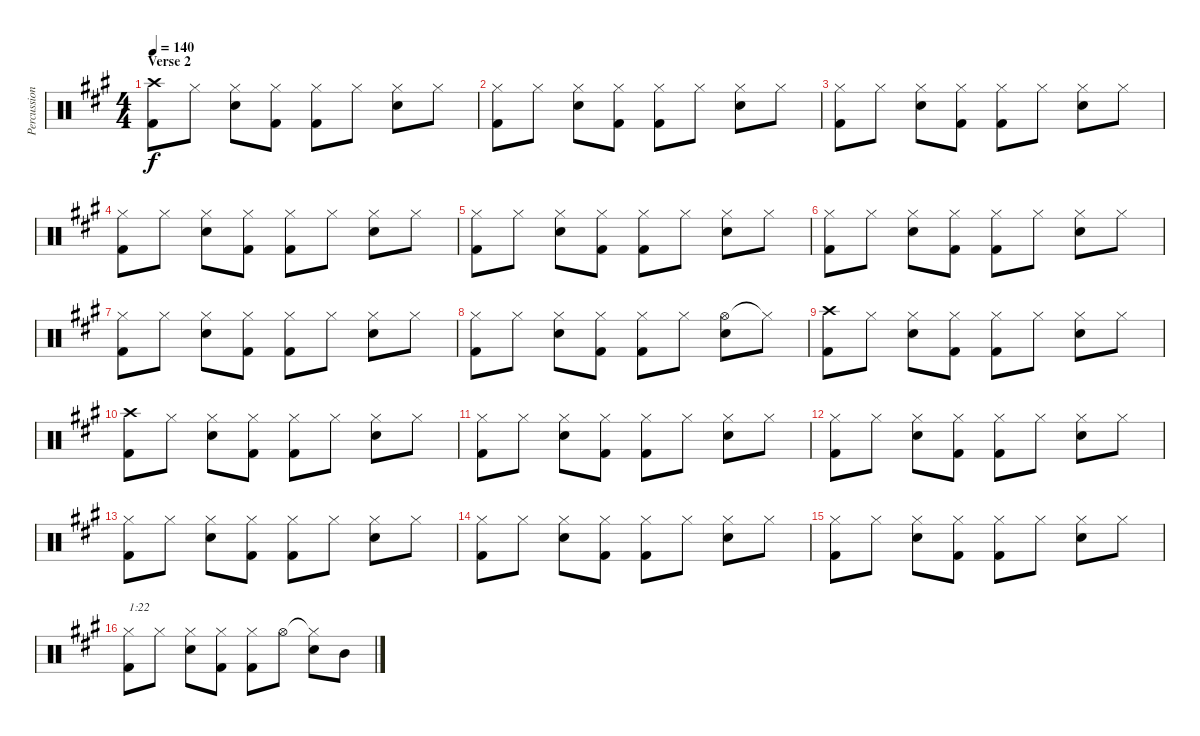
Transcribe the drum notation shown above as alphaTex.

\track ("Percussion" "Percussion") {instrument percussion}
\staff {score}
\articulation defaults
\ts (4 4)
\section ("" "Verse 2")
\tempo 140
\clef neutral
\ks a
("Crash high (hit)" "Kick (hit) 2").8{dy f} "Hi-Hat (closed)".8 ("Hi-Hat (closed)" "Electric Snare (hit)").8 ("Hi-Hat (closed)" "Kick (hit) 2").8 ("Hi-Hat (closed)" "Kick (hit) 2").8 "Hi-Hat (closed)".8 ("Hi-Hat (closed)" "Electric Snare (hit)").8 "Hi-Hat (closed)".8 |
("Hi-Hat (closed)" "Kick (hit) 2").8 "Hi-Hat (closed)".8 ("Hi-Hat (closed)" "Electric Snare (hit)").8 ("Hi-Hat (closed)" "Kick (hit) 2").8 ("Hi-Hat (closed)" "Kick (hit) 2").8 "Hi-Hat (closed)".8 ("Hi-Hat (closed)" "Electric Snare (hit)").8 "Hi-Hat (closed)".8 |
("Hi-Hat (closed)" "Kick (hit) 2").8 "Hi-Hat (closed)".8 ("Hi-Hat (closed)" "Electric Snare (hit)").8 ("Hi-Hat (closed)" "Kick (hit) 2").8 ("Hi-Hat (closed)" "Kick (hit) 2").8 "Hi-Hat (closed)".8 ("Hi-Hat (closed)" "Electric Snare (hit)").8 "Hi-Hat (closed)".8 |
("Hi-Hat (closed)" "Kick (hit) 2").8 "Hi-Hat (closed)".8 ("Hi-Hat (closed)" "Electric Snare (hit)").8 ("Hi-Hat (closed)" "Kick (hit) 2").8 ("Hi-Hat (closed)" "Kick (hit) 2").8 "Hi-Hat (closed)".8 ("Hi-Hat (closed)" "Electric Snare (hit)").8 "Hi-Hat (closed)".8 |
("Hi-Hat (closed)" "Kick (hit) 2").8 "Hi-Hat (closed)".8 ("Hi-Hat (closed)" "Electric Snare (hit)").8 ("Hi-Hat (closed)" "Kick (hit) 2").8 ("Hi-Hat (closed)" "Kick (hit) 2").8 "Hi-Hat (closed)".8 ("Hi-Hat (closed)" "Electric Snare (hit)").8 "Hi-Hat (closed)".8 |
("Hi-Hat (closed)" "Kick (hit) 2").8 "Hi-Hat (closed)".8 ("Hi-Hat (closed)" "Electric Snare (hit)").8 ("Hi-Hat (closed)" "Kick (hit) 2").8 ("Hi-Hat (closed)" "Kick (hit) 2").8 "Hi-Hat (closed)".8 ("Hi-Hat (closed)" "Electric Snare (hit)").8 "Hi-Hat (closed)".8 |
("Hi-Hat (closed)" "Kick (hit) 2").8 "Hi-Hat (closed)".8 ("Hi-Hat (closed)" "Electric Snare (hit)").8 ("Hi-Hat (closed)" "Kick (hit) 2").8 ("Hi-Hat (closed)" "Kick (hit) 2").8 "Hi-Hat (closed)".8 ("Hi-Hat (closed)" "Electric Snare (hit)").8 "Hi-Hat (closed)".8 |
("Hi-Hat (closed)" "Kick (hit) 2").8 "Hi-Hat (closed)".8 ("Hi-Hat (closed)" "Electric Snare (hit)").8 ("Hi-Hat (closed)" "Kick (hit) 2").8 ("Hi-Hat (closed)" "Kick (hit) 2").8 "Hi-Hat (closed)".8 ("Hi-Hat (open)" "Electric Snare (hit)").8 "Hi-Hat (closed)"{t}.8 |
("Crash high (hit)" "Kick (hit) 2").8 "Hi-Hat (closed)".8 ("Hi-Hat (closed)" "Electric Snare (hit)").8 ("Hi-Hat (closed)" "Kick (hit) 2").8 ("Hi-Hat (closed)" "Kick (hit) 2").8 "Hi-Hat (closed)".8 ("Hi-Hat (closed)" "Electric Snare (hit)").8 "Hi-Hat (closed)".8 |
("Crash high (hit)" "Kick (hit) 2").8 "Hi-Hat (closed)".8 ("Hi-Hat (closed)" "Electric Snare (hit)").8 ("Hi-Hat (closed)" "Kick (hit) 2").8 ("Hi-Hat (closed)" "Kick (hit) 2").8 "Hi-Hat (closed)".8 ("Hi-Hat (closed)" "Electric Snare (hit)").8 "Hi-Hat (closed)".8 |
("Hi-Hat (closed)" "Kick (hit) 2").8 "Hi-Hat (closed)".8 ("Hi-Hat (closed)" "Electric Snare (hit)").8 ("Hi-Hat (closed)" "Kick (hit) 2").8 ("Hi-Hat (closed)" "Kick (hit) 2").8 "Hi-Hat (closed)".8 ("Hi-Hat (closed)" "Electric Snare (hit)").8 "Hi-Hat (closed)".8 |
("Hi-Hat (closed)" "Kick (hit) 2").8 "Hi-Hat (closed)".8 ("Hi-Hat (closed)" "Electric Snare (hit)").8 ("Hi-Hat (closed)" "Kick (hit) 2").8 ("Hi-Hat (closed)" "Kick (hit) 2").8 "Hi-Hat (closed)".8 ("Hi-Hat (closed)" "Electric Snare (hit)").8 "Hi-Hat (closed)".8 |
("Hi-Hat (closed)" "Kick (hit) 2").8 "Hi-Hat (closed)".8 ("Hi-Hat (closed)" "Electric Snare (hit)").8 ("Hi-Hat (closed)" "Kick (hit) 2").8 ("Hi-Hat (closed)" "Kick (hit) 2").8 "Hi-Hat (closed)".8 ("Hi-Hat (closed)" "Electric Snare (hit)").8 "Hi-Hat (closed)".8 |
("Hi-Hat (closed)" "Kick (hit) 2").8 "Hi-Hat (closed)".8 ("Hi-Hat (closed)" "Electric Snare (hit)").8 ("Hi-Hat (closed)" "Kick (hit) 2").8 ("Hi-Hat (closed)" "Kick (hit) 2").8 "Hi-Hat (closed)".8 ("Hi-Hat (closed)" "Electric Snare (hit)").8 "Hi-Hat (closed)".8 |
("Hi-Hat (closed)" "Kick (hit) 2").8 "Hi-Hat (closed)".8 ("Hi-Hat (closed)" "Electric Snare (hit)").8 ("Hi-Hat (closed)" "Kick (hit) 2").8 ("Hi-Hat (closed)" "Kick (hit) 2").8 "Hi-Hat (closed)".8 ("Hi-Hat (closed)" "Electric Snare (hit)").8 "Hi-Hat (closed)".8 |
("Hi-Hat (closed)" "Kick (hit) 2").8{txt "1:22"} "Hi-Hat (closed)".8 ("Hi-Hat (closed)" "Electric Snare (hit)").8 ("Hi-Hat (closed)" "Kick (hit) 2").8 ("Hi-Hat (closed)" "Kick (hit) 2").8 "Hi-Hat (open)".8 ("Hi-Hat (closed)"{t} "Electric Snare (hit)").8 "Mid Tom (hit)".8
